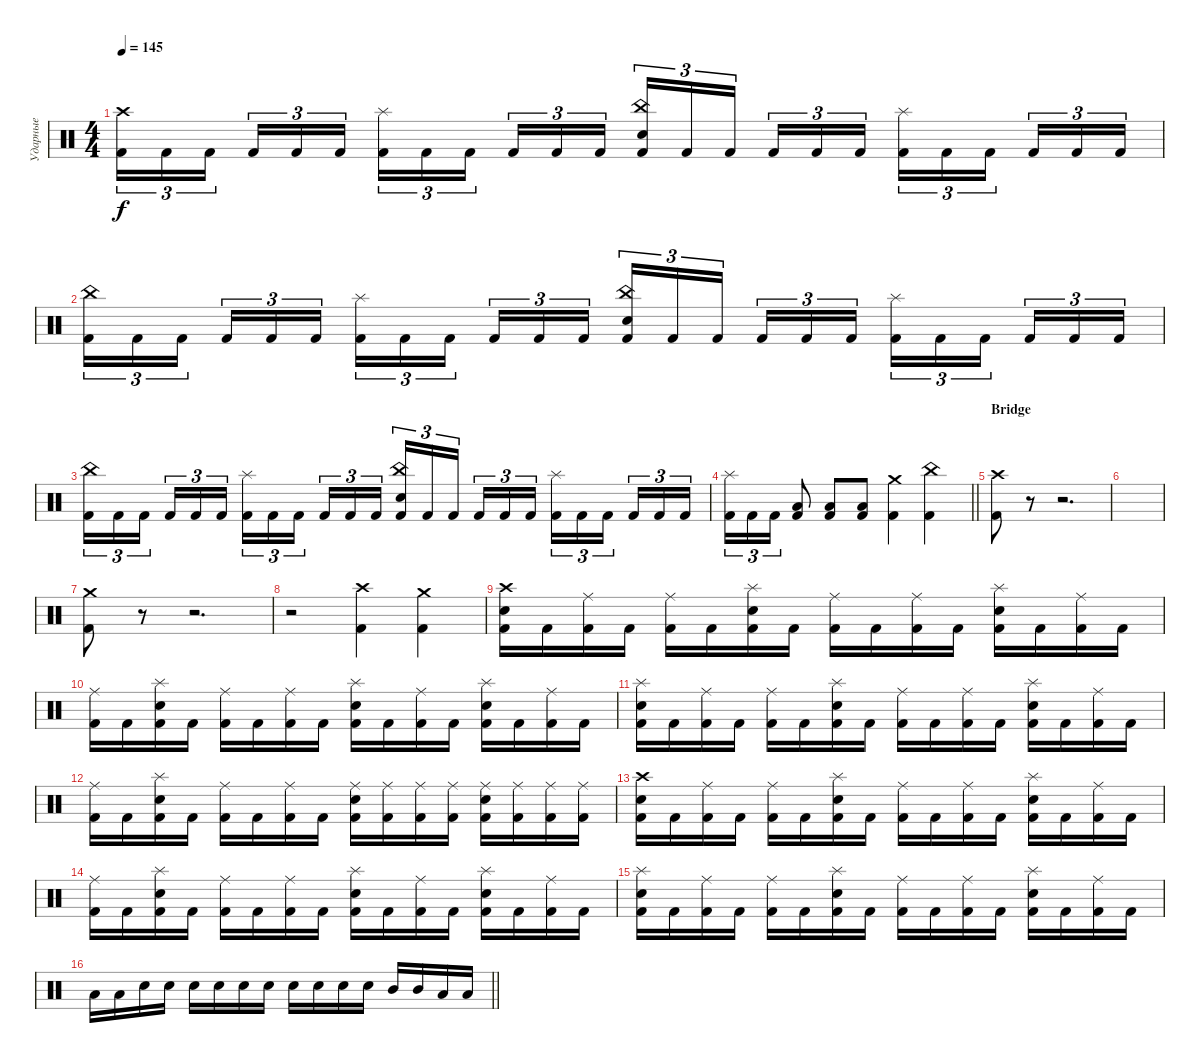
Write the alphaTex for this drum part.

\track ("Ударные" "Ударные") {instrument percussion}
\staff {score}
\articulation defaults
\ts (4 4)
\tempo 145
\clef neutral
\ks c
("Crash high (hit)" "Kick (hit) 2").16{tu (3 2) dy f} "Kick (hit) 2".16{tu (3 2)} "Kick (hit) 2".16{tu (3 2) beam splitsecondary} "Kick (hit) 2".16{tu (3 2)} "Kick (hit) 2".16{tu (3 2)} "Kick (hit) 2".16{tu (3 2)} ("Splash (hit)" "Kick (hit) 2").16{tu (3 2)} "Kick (hit) 2".16{tu (3 2)} "Kick (hit) 2".16{tu (3 2) beam splitsecondary} "Kick (hit) 2".16{tu (3 2)} "Kick (hit) 2".16{tu (3 2)} "Kick (hit) 2".16{tu (3 2)} ("China (hit)" "Electric Snare (hit)" "Kick (hit) 2").16{tu (3 2)} "Kick (hit) 2".16{tu (3 2)} "Kick (hit) 2".16{tu (3 2) beam splitsecondary} "Kick (hit) 2".16{tu (3 2)} "Kick (hit) 2".16{tu (3 2)} "Kick (hit) 2".16{tu (3 2)} ("Splash (hit)" "Kick (hit) 2").16{tu (3 2)} "Kick (hit) 2".16{tu (3 2)} "Kick (hit) 2".16{tu (3 2) beam splitsecondary} "Kick (hit) 2".16{tu (3 2)} "Kick (hit) 2".16{tu (3 2)} "Kick (hit) 2".16{tu (3 2)} |
("China (hit)" "Kick (hit) 2").16{tu (3 2)} "Kick (hit) 2".16{tu (3 2)} "Kick (hit) 2".16{tu (3 2) beam splitsecondary} "Kick (hit) 2".16{tu (3 2)} "Kick (hit) 2".16{tu (3 2)} "Kick (hit) 2".16{tu (3 2)} ("Splash (hit)" "Kick (hit) 2").16{tu (3 2)} "Kick (hit) 2".16{tu (3 2)} "Kick (hit) 2".16{tu (3 2) beam splitsecondary} "Kick (hit) 2".16{tu (3 2)} "Kick (hit) 2".16{tu (3 2)} "Kick (hit) 2".16{tu (3 2)} ("China (hit)" "Electric Snare (hit)" "Kick (hit) 2").16{tu (3 2)} "Kick (hit) 2".16{tu (3 2)} "Kick (hit) 2".16{tu (3 2) beam splitsecondary} "Kick (hit) 2".16{tu (3 2)} "Kick (hit) 2".16{tu (3 2)} "Kick (hit) 2".16{tu (3 2)} ("Splash (hit)" "Kick (hit) 2").16{tu (3 2)} "Kick (hit) 2".16{tu (3 2)} "Kick (hit) 2".16{tu (3 2) beam splitsecondary} "Kick (hit) 2".16{tu (3 2)} "Kick (hit) 2".16{tu (3 2)} "Kick (hit) 2".16{tu (3 2)} |
("China (hit)" "Kick (hit) 2").16{tu (3 2)} "Kick (hit) 2".16{tu (3 2)} "Kick (hit) 2".16{tu (3 2) beam splitsecondary} "Kick (hit) 2".16{tu (3 2)} "Kick (hit) 2".16{tu (3 2)} "Kick (hit) 2".16{tu (3 2)} ("Splash (hit)" "Kick (hit) 2").16{tu (3 2)} "Kick (hit) 2".16{tu (3 2)} "Kick (hit) 2".16{tu (3 2) beam splitsecondary} "Kick (hit) 2".16{tu (3 2)} "Kick (hit) 2".16{tu (3 2)} "Kick (hit) 2".16{tu (3 2)} ("China (hit)" "Electric Snare (hit)" "Kick (hit) 2").16{tu (3 2)} "Kick (hit) 2".16{tu (3 2)} "Kick (hit) 2".16{tu (3 2) beam splitsecondary} "Kick (hit) 2".16{tu (3 2)} "Kick (hit) 2".16{tu (3 2)} "Kick (hit) 2".16{tu (3 2)} ("Splash (hit)" "Kick (hit) 2").16{tu (3 2)} "Kick (hit) 2".16{tu (3 2)} "Kick (hit) 2".16{tu (3 2) beam splitsecondary} "Kick (hit) 2".16{tu (3 2)} "Kick (hit) 2".16{tu (3 2)} "Kick (hit) 2".16{tu (3 2)} |
\barLineRight lightlight
("Splash (hit)" "Kick (hit) 2").16{tu (3 2)} "Kick (hit) 2".16{tu (3 2)} "Kick (hit) 2".16{tu (3 2)} ("Low Tom (hit)" "Kick (hit) 2").8 ("Low Tom (hit)" "Kick (hit) 2").8 ("Low Tom (hit)" "Kick (hit) 2").8 ("Crash medium (hit)" "Kick (hit) 2").4 ("China (hit)" "Kick (hit) 2").4 |
\section ("" "Bridge")
("Crash high (hit)" "Kick (hit) 2").8 r.8 r.2{d} |
|
("Crash medium (hit)" "Kick (hit) 2").8 r.8 r.2{d} |
r.2 ("Crash high (hit)" "Kick (hit) 2").4 ("Crash medium (hit)" "Kick (hit) 2").4 |
("Crash high (hit)" "Electric Snare (hit)" "Kick (hit) 2").16 "Kick (hit) 2".16 ("Ride (middle)" "Kick (hit) 2").16 "Kick (hit) 2".16 ("Ride (middle)" "Kick (hit) 2").16 "Kick (hit) 2".16 ("Splash (hit)" "Electric Snare (hit)" "Kick (hit) 2").16 "Kick (hit) 2".16 ("Ride (middle)" "Kick (hit) 2").16 "Kick (hit) 2".16 ("Ride (middle)" "Kick (hit) 2").16 "Kick (hit) 2".16 ("Splash (hit)" "Electric Snare (hit)" "Kick (hit) 2").16 "Kick (hit) 2".16 ("Ride (middle)" "Kick (hit) 2").16 "Kick (hit) 2".16 |
("Ride (middle)" "Kick (hit) 2").16 "Kick (hit) 2".16 ("Splash (hit)" "Electric Snare (hit)" "Kick (hit) 2").16 "Kick (hit) 2".16 ("Ride (middle)" "Kick (hit) 2").16 "Kick (hit) 2".16 ("Ride (middle)" "Kick (hit) 2").16 "Kick (hit) 2".16 ("Splash (hit)" "Electric Snare (hit)" "Kick (hit) 2").16 "Kick (hit) 2".16 ("Ride (middle)" "Kick (hit) 2").16 "Kick (hit) 2".16 ("Splash (hit)" "Electric Snare (hit)" "Kick (hit) 2").16 "Kick (hit) 2".16 ("Ride (middle)" "Kick (hit) 2").16 "Kick (hit) 2".16 |
("Splash (hit)" "Electric Snare (hit)" "Kick (hit) 2").16 "Kick (hit) 2".16 ("Ride (middle)" "Kick (hit) 2").16 "Kick (hit) 2".16 ("Ride (middle)" "Kick (hit) 2").16 "Kick (hit) 2".16 ("Splash (hit)" "Electric Snare (hit)" "Kick (hit) 2").16 "Kick (hit) 2".16 ("Ride (middle)" "Kick (hit) 2").16 "Kick (hit) 2".16 ("Ride (middle)" "Kick (hit) 2").16 "Kick (hit) 2".16 ("Splash (hit)" "Electric Snare (hit)" "Kick (hit) 2").16 "Kick (hit) 2".16 ("Ride (middle)" "Kick (hit) 2").16 "Kick (hit) 2".16 |
("Ride (middle)" "Kick (hit) 2").16 "Kick (hit) 2".16 ("Splash (hit)" "Electric Snare (hit)" "Kick (hit) 2").16 "Kick (hit) 2".16 ("Ride (middle)" "Kick (hit) 2").16 "Kick (hit) 2".16 ("Ride (middle)" "Kick (hit) 2").16 "Kick (hit) 2".16 ("Ride (middle)" "Electric Snare (hit)" "Kick (hit) 2").16 ("Ride (middle)" "Kick (hit) 2").16 ("Ride (middle)" "Kick (hit) 2").16 ("Ride (middle)" "Kick (hit) 2").16 ("Ride (middle)" "Electric Snare (hit)" "Kick (hit) 2").16 ("Ride (middle)" "Kick (hit) 2").16 ("Ride (middle)" "Kick (hit) 2").16 ("Ride (middle)" "Kick (hit) 2").16 |
("Crash high (hit)" "Electric Snare (hit)" "Kick (hit) 2").16 "Kick (hit) 2".16 ("Ride (middle)" "Kick (hit) 2").16 "Kick (hit) 2".16 ("Ride (middle)" "Kick (hit) 2").16 "Kick (hit) 2".16 ("Splash (hit)" "Electric Snare (hit)" "Kick (hit) 2").16 "Kick (hit) 2".16 ("Ride (middle)" "Kick (hit) 2").16 "Kick (hit) 2".16 ("Ride (middle)" "Kick (hit) 2").16 "Kick (hit) 2".16 ("Splash (hit)" "Electric Snare (hit)" "Kick (hit) 2").16 "Kick (hit) 2".16 ("Ride (middle)" "Kick (hit) 2").16 "Kick (hit) 2".16 |
("Ride (middle)" "Kick (hit) 2").16 "Kick (hit) 2".16 ("Splash (hit)" "Electric Snare (hit)" "Kick (hit) 2").16 "Kick (hit) 2".16 ("Ride (middle)" "Kick (hit) 2").16 "Kick (hit) 2".16 ("Ride (middle)" "Kick (hit) 2").16 "Kick (hit) 2".16 ("Splash (hit)" "Electric Snare (hit)" "Kick (hit) 2").16 "Kick (hit) 2".16 ("Ride (middle)" "Kick (hit) 2").16 "Kick (hit) 2".16 ("Splash (hit)" "Electric Snare (hit)" "Kick (hit) 2").16 "Kick (hit) 2".16 ("Ride (middle)" "Kick (hit) 2").16 "Kick (hit) 2".16 |
("Splash (hit)" "Electric Snare (hit)" "Kick (hit) 2").16 "Kick (hit) 2".16 ("Ride (middle)" "Kick (hit) 2").16 "Kick (hit) 2".16 ("Ride (middle)" "Kick (hit) 2").16 "Kick (hit) 2".16 ("Splash (hit)" "Electric Snare (hit)" "Kick (hit) 2").16 "Kick (hit) 2".16 ("Ride (middle)" "Kick (hit) 2").16 "Kick (hit) 2".16 ("Ride (middle)" "Kick (hit) 2").16 "Kick (hit) 2".16 ("Splash (hit)" "Electric Snare (hit)" "Kick (hit) 2").16 "Kick (hit) 2".16 ("Ride (middle)" "Kick (hit) 2").16 "Kick (hit) 2".16 |
\barLineRight lightlight "Low Tom (hit)".16 "Low Tom (hit)".16 "Electric Snare (hit)".16 "Electric Snare (hit)".16 "Electric Snare (hit)".16 "Electric Snare (hit)".16 "Electric Snare (hit)".16 "Electric Snare (hit)".16 "Electric Snare (hit)".16 "Electric Snare (hit)".16 "Electric Snare (hit)".16 "Electric Snare (hit)".16 "Mid Tom (hit)".16 "Mid Tom (hit)".16 "Low Tom (hit)".16 "Low Tom (hit)".16
